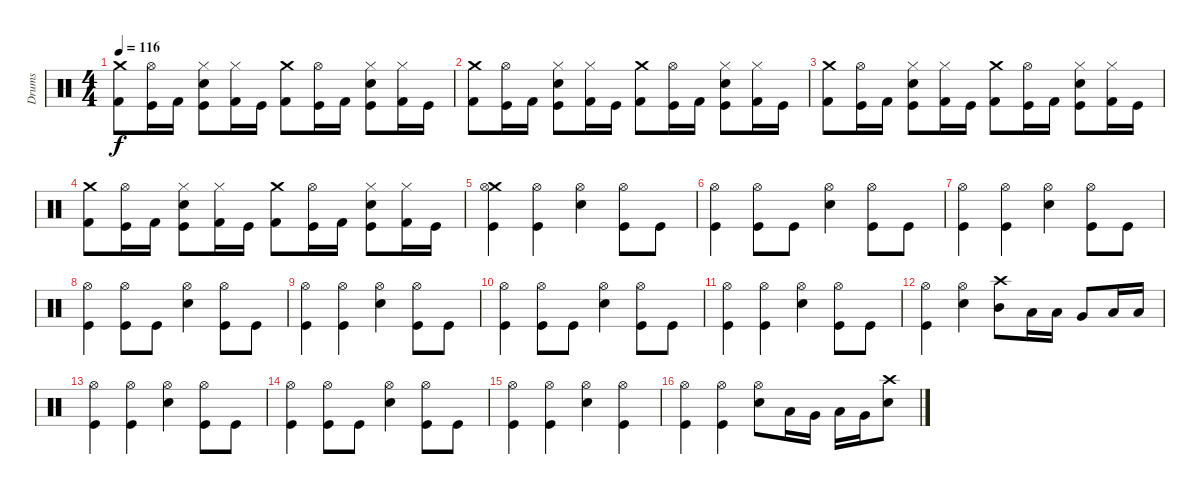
\track ("Drums" "Drums") {instrument percussion}
\staff {score}
\articulation defaults
\ts (4 4)
\tempo 116
\clef neutral
\ks c
("Crash medium (hit)" "Kick (hit) 2").8{dy f} ("Hi-Hat (open)" "Kick (hit)").16 "Kick (hit) 2".16 ("Hi-Hat (closed)" "Snare (hit) 2" "Kick (hit)").8 ("Hi-Hat (closed)" "Kick (hit) 2").16 "Kick (hit)".16 ("Crash medium (hit)" "Kick (hit) 2").8 ("Hi-Hat (open)" "Kick (hit)").16 "Kick (hit) 2".16 ("Hi-Hat (closed)" "Snare (hit) 2" "Kick (hit)").8 ("Hi-Hat (closed)" "Kick (hit) 2").16 "Kick (hit)".16 |
("Crash medium (hit)" "Kick (hit) 2").8 ("Hi-Hat (open)" "Kick (hit)").16 "Kick (hit) 2".16 ("Hi-Hat (closed)" "Snare (hit) 2" "Kick (hit)").8 ("Hi-Hat (closed)" "Kick (hit) 2").16 "Kick (hit)".16 ("Crash medium (hit)" "Kick (hit) 2").8 ("Hi-Hat (open)" "Kick (hit)").16 "Kick (hit) 2".16 ("Hi-Hat (closed)" "Snare (hit) 2" "Kick (hit)").8 ("Hi-Hat (closed)" "Kick (hit) 2").16 "Kick (hit)".16 |
("Crash medium (hit)" "Kick (hit) 2").8 ("Hi-Hat (open)" "Kick (hit)").16 "Kick (hit) 2".16 ("Hi-Hat (closed)" "Snare (hit) 2" "Kick (hit)").8 ("Hi-Hat (closed)" "Kick (hit) 2").16 "Kick (hit)".16 ("Crash medium (hit)" "Kick (hit) 2").8 ("Hi-Hat (open)" "Kick (hit)").16 "Kick (hit) 2".16 ("Hi-Hat (closed)" "Snare (hit) 2" "Kick (hit)").8 ("Hi-Hat (closed)" "Kick (hit) 2").16 "Kick (hit)".16 |
("Crash medium (hit)" "Kick (hit) 2").8 ("Hi-Hat (open)" "Kick (hit)").16 "Kick (hit) 2".16 ("Hi-Hat (closed)" "Snare (hit) 2" "Kick (hit)").8 ("Hi-Hat (closed)" "Kick (hit) 2").16 "Kick (hit)".16 ("Crash medium (hit)" "Kick (hit) 2").8 ("Hi-Hat (open)" "Kick (hit)").16 "Kick (hit) 2".16 ("Hi-Hat (closed)" "Snare (hit) 2" "Kick (hit)").8 ("Hi-Hat (closed)" "Kick (hit) 2").16 "Kick (hit)".16 |
("Crash medium (hit)" "Hi-Hat (open)" "Kick (hit)").4 ("Hi-Hat (open)" "Kick (hit)").4 ("Hi-Hat (open)" "Snare (hit) 2").4 ("Hi-Hat (open)" "Kick (hit)").8 "Kick (hit)".8 |
("Hi-Hat (open)" "Kick (hit)").4 ("Hi-Hat (open)" "Kick (hit)").8 "Kick (hit)".8 ("Hi-Hat (open)" "Snare (hit) 2").4 ("Hi-Hat (open)" "Kick (hit)").8 "Kick (hit)".8 |
("Hi-Hat (open)" "Kick (hit)").4 ("Hi-Hat (open)" "Kick (hit)").4 ("Hi-Hat (open)" "Snare (hit) 2").4 ("Hi-Hat (open)" "Kick (hit)").8 "Kick (hit)".8 |
("Hi-Hat (open)" "Kick (hit)").4 ("Hi-Hat (open)" "Kick (hit)").8 "Kick (hit)".8 ("Hi-Hat (open)" "Snare (hit) 2").4 ("Hi-Hat (open)" "Kick (hit)").8 "Kick (hit)".8 |
("Hi-Hat (open)" "Kick (hit)").4 ("Hi-Hat (open)" "Kick (hit)").4 ("Hi-Hat (open)" "Snare (hit) 2").4 ("Hi-Hat (open)" "Kick (hit)").8 "Kick (hit)".8 |
("Hi-Hat (open)" "Kick (hit)").4 ("Hi-Hat (open)" "Kick (hit)").8 "Kick (hit)".8 ("Hi-Hat (open)" "Snare (hit) 2").4 ("Hi-Hat (open)" "Kick (hit)").8 "Kick (hit)".8 |
("Hi-Hat (open)" "Kick (hit)").4 ("Hi-Hat (open)" "Kick (hit)").4 ("Hi-Hat (open)" "Snare (hit) 2").4 ("Hi-Hat (open)" "Kick (hit)").8 "Kick (hit)".8 |
("Hi-Hat (open)" "Kick (hit)").4 ("Hi-Hat (open)" "Snare (hit) 2").4 ("Crash high (hit)" "Mid Tom (hit)").8 "Low Tom (hit)".16 "Low Tom (hit)".16 "Very Low Tom (hit)".8 "Low Tom (hit)".16 "Low Tom (hit)".16 |
("Hi-Hat (open)" "Kick (hit)").4 ("Hi-Hat (open)" "Kick (hit)").4 ("Hi-Hat (open)" "Snare (hit) 2").4 ("Hi-Hat (open)" "Kick (hit)").8 "Kick (hit)".8 |
("Hi-Hat (open)" "Kick (hit)").4 ("Hi-Hat (open)" "Kick (hit)").8 "Kick (hit)".8 ("Hi-Hat (open)" "Snare (hit) 2").4 ("Hi-Hat (open)" "Kick (hit)").8 "Kick (hit)".8 |
("Hi-Hat (open)" "Kick (hit)").4 ("Hi-Hat (open)" "Kick (hit)").4 ("Hi-Hat (open)" "Snare (hit) 2").4 ("Hi-Hat (open)" "Kick (hit)").4 |
("Hi-Hat (open)" "Kick (hit)").4 ("Hi-Hat (open)" "Kick (hit)").4 ("Hi-Hat (open)" "Snare (hit) 2").8 "Low Tom (hit)".16 "Very Low Tom (hit)".16 "Low Tom (hit)".16 "Very Low Tom (hit)".16 ("Crash high (hit)" "Snare (hit) 2").8
